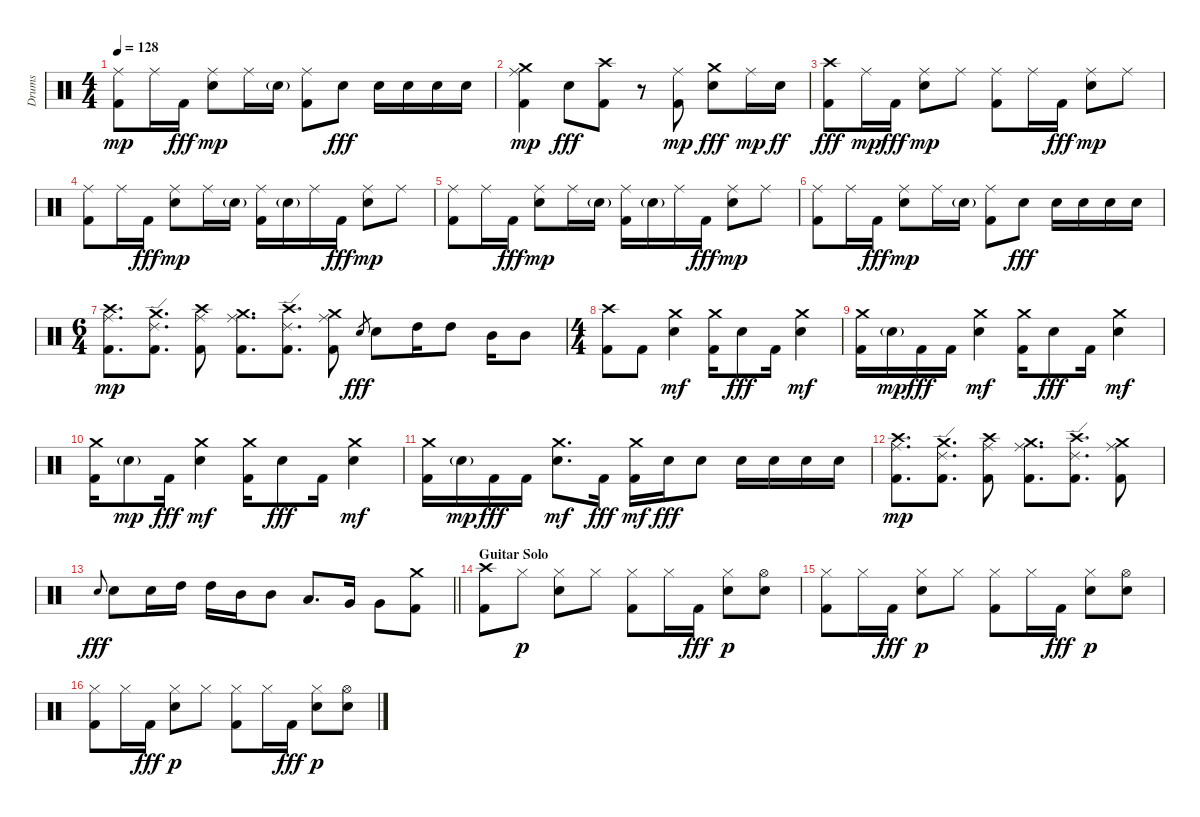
\track ("Drums" "Drums") {instrument percussion}
\staff {score}
\articulation defaults
\ts (4 4)
\tempo 128
\clef neutral
\ks c
("Kick (hit) 2" "Ride (middle)").8{dy mp} "Ride (middle)".16 "Kick (hit) 2".16{dy fff} ("Electric Snare (hit)" "Ride (middle)").8{dy mp} "Ride (middle)".16 "Electric Snare (hit)"{g}.16 ("Kick (hit) 2" "Ride (middle)").8 "Electric Snare (hit)".8{dy fff} "Electric Snare (hit)".16 "Electric Snare (hit)".16 "Electric Snare (hit)".16 "Electric Snare (hit)".16 |
("Kick (hit) 2" "Ride (middle)" "Crash medium (hit)").4{dy mp} "Electric Snare (hit)".8{dy fff} ("Kick (hit) 2" "Crash high (hit)").8 r.8 ("Kick (hit) 2" "Ride (middle)").8{dy mp} ("Electric Snare (hit)" "Crash medium (hit)").8{dy fff} "Ride (middle)".16{dy mp} "Electric Snare (hit)".16{dy ff} |
("Kick (hit) 2" "Crash high (hit)").8{dy fff} "Ride (middle)".16{dy mp} "Kick (hit) 2".16{dy fff} ("Electric Snare (hit)" "Ride (middle)").8{dy mp} "Ride (middle)".8 ("Kick (hit) 2" "Ride (middle)").8 "Ride (middle)".16 "Kick (hit) 2".16{dy fff} ("Electric Snare (hit)" "Ride (middle)").8{dy mp} "Ride (middle)".8 |
("Kick (hit) 2" "Ride (middle)").8 "Ride (middle)".16 "Kick (hit) 2".16{dy fff} ("Electric Snare (hit)" "Ride (middle)").8{dy mp} "Ride (middle)".16 "Electric Snare (hit)"{g}.16 ("Kick (hit) 2" "Ride (middle)").16 "Electric Snare (hit)"{g}.16 "Ride (middle)".16 "Kick (hit) 2".16{dy fff} ("Electric Snare (hit)" "Ride (middle)").8{dy mp} "Ride (middle)".8 |
("Kick (hit) 2" "Ride (middle)").8 "Ride (middle)".16 "Kick (hit) 2".16{dy fff} ("Electric Snare (hit)" "Ride (middle)").8{dy mp} "Ride (middle)".16 "Electric Snare (hit)"{g}.16 ("Kick (hit) 2" "Ride (middle)").16 "Electric Snare (hit)"{g}.16 "Ride (middle)".16 "Kick (hit) 2".16{dy fff} ("Electric Snare (hit)" "Ride (middle)").8{dy mp} "Ride (middle)".8 |
("Kick (hit) 2" "Ride (middle)").8 "Ride (middle)".16 "Kick (hit) 2".16{dy fff} ("Electric Snare (hit)" "Ride (middle)").8{dy mp} "Ride (middle)".16 "Electric Snare (hit)"{g}.16 ("Kick (hit) 2" "Ride (middle)").8 "Electric Snare (hit)".8{dy fff} "Electric Snare (hit)".16 "Electric Snare (hit)".16 "Electric Snare (hit)".16 "Electric Snare (hit)".16 |
\ts (6 4)
("Kick (hit) 2" "Ride (middle)" "Crash high (hit)").8{d dy mp} ("Kick (hit) 2" "Ride (edge) 2" "Crash medium (hit)").8{d} ("Kick (hit) 2" "Ride (middle)" "Crash high (hit)").8 ("Kick (hit) 2" "Ride (middle)" "Crash medium (hit)").8{d} ("Kick (hit) 2" "Ride (edge) 2" "Crash high (hit)").8{d} ("Kick (hit) 2" "Ride (middle)" "Crash medium (hit)").8 "Electric Snare (hit)".8{gr dy fff} "Electric Snare (hit)".8 "High Tom (hit)".16 "High Tom (hit)".8 "Mid Tom (hit)".16 "Mid Tom (hit)".8 |
\ts (4 4)
("Kick (hit) 2" "Crash high (hit)").8 "Kick (hit) 2".8 ("Electric Snare (hit)" "Crash medium (hit)").4{dy mf} ("Kick (hit) 2" "Crash medium (hit)").16 "Electric Snare (hit)".8{dy fff} "Kick (hit) 2".16 ("Electric Snare (hit)" "Crash medium (hit)").4{dy mf} |
("Kick (hit) 2" "Crash medium (hit)").16 "Electric Snare (hit)"{g}.16{dy mp} "Kick (hit) 2".16{dy fff} "Kick (hit) 2".16 ("Electric Snare (hit)" "Crash medium (hit)").4{dy mf} ("Kick (hit) 2" "Crash medium (hit)").16 "Electric Snare (hit)".8{dy fff} "Kick (hit) 2".16 ("Electric Snare (hit)" "Crash medium (hit)").4{dy mf} |
("Kick (hit) 2" "Crash medium (hit)").16 "Electric Snare (hit)"{g}.8{dy mp} "Kick (hit) 2".16{dy fff} ("Electric Snare (hit)" "Crash medium (hit)").4{dy mf} ("Kick (hit) 2" "Crash medium (hit)").16 "Electric Snare (hit)".8{dy fff} "Kick (hit) 2".16 ("Electric Snare (hit)" "Crash medium (hit)").4{dy mf} |
("Kick (hit) 2" "Crash medium (hit)").16 "Electric Snare (hit)"{g}.16{dy mp} "Kick (hit) 2".16{dy fff} "Kick (hit) 2".16 ("Electric Snare (hit)" "Crash medium (hit)").8{d dy mf} "Kick (hit) 2".16{dy fff} ("Kick (hit) 2" "Crash medium (hit)").16{dy mf} "Electric Snare (hit)".16{dy fff} "Electric Snare (hit)".8 "Electric Snare (hit)".16 "Electric Snare (hit)".16 "Electric Snare (hit)".16 "Electric Snare (hit)".16 |
("Kick (hit) 2" "Ride (middle)" "Crash high (hit)").8{d dy mp} ("Kick (hit) 2" "Ride (edge) 2" "Crash medium (hit)").8{d} ("Kick (hit) 2" "Ride (middle)" "Crash high (hit)").8 ("Kick (hit) 2" "Ride (middle)" "Crash medium (hit)").8{d} ("Kick (hit) 2" "Ride (edge) 2" "Crash high (hit)").8{d} ("Kick (hit) 2" "Ride (middle)" "Crash medium (hit)").8 |
\barLineRight lightlight "Electric Snare (hit)".8{gr onbeat dy fff} "Electric Snare (hit)".8 "Electric Snare (hit)".16 "High Tom (hit)".16 "High Tom (hit)".16 "Mid Tom (hit)".16 "Mid Tom (hit)".8 "Low Tom (hit)".8{d} "Very Low Tom (hit)".16 "Very Low Tom (hit)".8
("Kick (hit) 2" "Crash medium (hit)").8 |
\section ("" "Guitar Solo")
("Kick (hit) 2" "Crash high (hit)").8 "Hi-Hat (closed)".8{dy p} ("Electric Snare (hit)" "Hi-Hat (closed)").8 "Hi-Hat (closed)".8 ("Kick (hit) 2" "Hi-Hat (closed)").8 "Hi-Hat (closed)".16 "Kick (hit) 2".16{dy fff} ("Electric Snare (hit)" "Hi-Hat (closed)").8{dy p} ("Electric Snare (hit)" "Hi-Hat (open)").8 |
("Kick (hit) 2" "Hi-Hat (closed)").8 "Hi-Hat (closed)".16 "Kick (hit) 2".16{dy fff} ("Electric Snare (hit)" "Hi-Hat (closed)").8{dy p} "Hi-Hat (closed)".8 ("Kick (hit) 2" "Hi-Hat (closed)").8 "Hi-Hat (closed)".16 "Kick (hit) 2".16{dy fff} ("Electric Snare (hit)" "Hi-Hat (closed)").8{dy p} ("Electric Snare (hit)" "Hi-Hat (open)").8 |
("Kick (hit) 2" "Hi-Hat (closed)").8 "Hi-Hat (closed)".16 "Kick (hit) 2".16{dy fff} ("Electric Snare (hit)" "Hi-Hat (closed)").8{dy p} "Hi-Hat (closed)".8 ("Kick (hit) 2" "Hi-Hat (closed)").8 "Hi-Hat (closed)".16 "Kick (hit) 2".16{dy fff} ("Electric Snare (hit)" "Hi-Hat (closed)").8{dy p} ("Electric Snare (hit)" "Hi-Hat (open)").8
